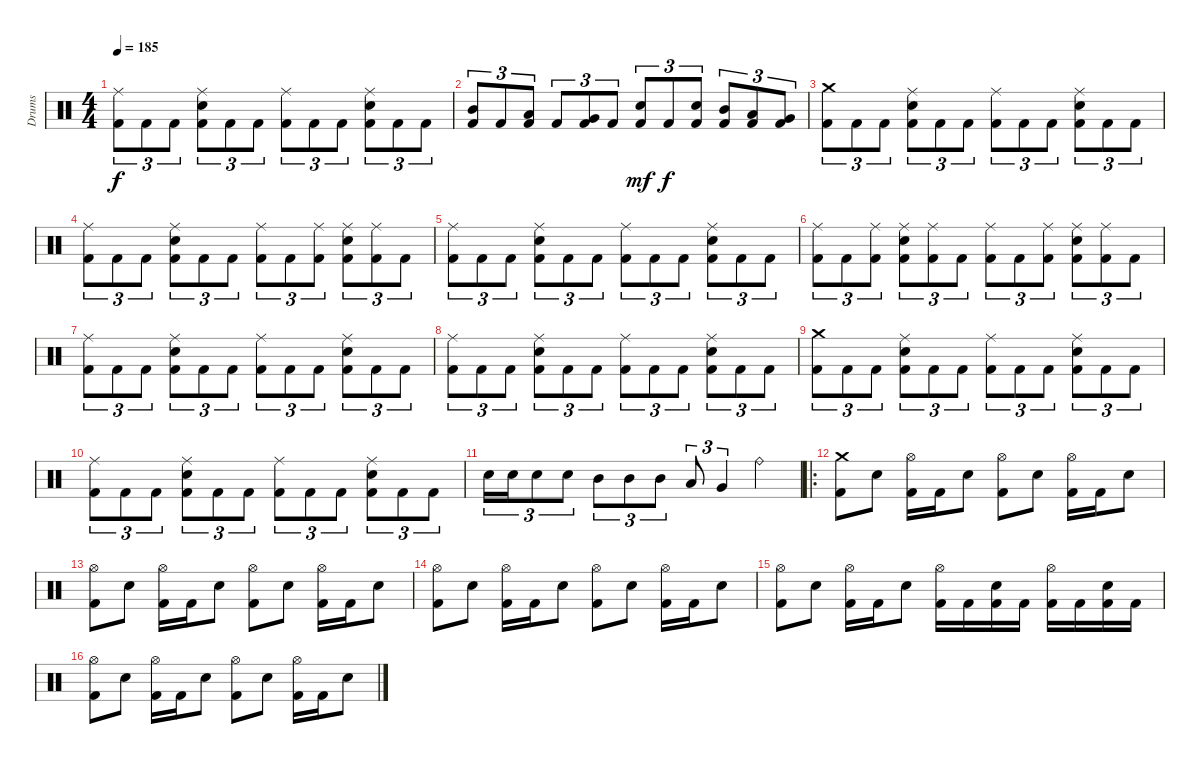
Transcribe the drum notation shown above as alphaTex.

\track ("Drums" "Drums") {instrument percussion}
\staff {score}
\articulation defaults
\ts (4 4)
\tempo 185
\clef neutral
\ks c
("Ride (middle)" "Kick (hit) 2").8{tu (3 2) dy f} "Kick (hit) 2".8{tu (3 2)} "Kick (hit) 2".8{tu (3 2)} ("Ride (middle)" "Electric Snare (hit)" "Kick (hit) 2").8{tu (3 2)} "Kick (hit) 2".8{tu (3 2)} "Kick (hit) 2".8{tu (3 2)} ("Ride (middle)" "Kick (hit) 2").8{tu (3 2)} "Kick (hit) 2".8{tu (3 2)} "Kick (hit) 2".8{tu (3 2)} ("Ride (middle)" "Electric Snare (hit)" "Kick (hit) 2").8{tu (3 2)} "Kick (hit) 2".8{tu (3 2)} "Kick (hit) 2".8{tu (3 2)} |
("Mid Tom (hit)" "Kick (hit) 2").8{tu (3 2)} "Kick (hit) 2".8{tu (3 2)} ("Low Tom (hit)" "Kick (hit) 2").8{tu (3 2)} "Kick (hit) 2".8{tu (3 2)} ("Very Low Tom (hit)" "Kick (hit) 2").8{tu (3 2)} "Kick (hit) 2".8{tu (3 2)} ("Electric Snare (hit)" "Kick (hit) 2").8{tu (3 2) dy mf} "Kick (hit) 2".8{tu (3 2) dy f} ("Electric Snare (hit)" "Kick (hit) 2").8{tu (3 2)} ("Mid Tom (hit)" "Kick (hit) 2").8{tu (3 2)} ("Low Tom (hit)" "Kick (hit) 2").8{tu (3 2)} ("Very Low Tom (hit)" "Kick (hit) 2").8{tu (3 2)} |
("Crash medium (hit)" "Kick (hit) 2").8{tu (3 2)} "Kick (hit) 2".8{tu (3 2)} "Kick (hit) 2".8{tu (3 2)} ("Ride (middle)" "Electric Snare (hit)" "Kick (hit) 2").8{tu (3 2)} "Kick (hit) 2".8{tu (3 2)} "Kick (hit) 2".8{tu (3 2)} ("Ride (middle)" "Kick (hit) 2").8{tu (3 2)} "Kick (hit) 2".8{tu (3 2)} "Kick (hit) 2".8{tu (3 2)} ("Ride (middle)" "Electric Snare (hit)" "Kick (hit) 2").8{tu (3 2)} "Kick (hit) 2".8{tu (3 2)} "Kick (hit) 2".8{tu (3 2)} |
("Ride (middle)" "Kick (hit) 2").8{tu (3 2)} "Kick (hit) 2".8{tu (3 2)} "Kick (hit) 2".8{tu (3 2)} ("Ride (middle)" "Electric Snare (hit)" "Kick (hit) 2").8{tu (3 2)} "Kick (hit) 2".8{tu (3 2)} "Kick (hit) 2".8{tu (3 2)} ("Ride (middle)" "Kick (hit) 2").8{tu (3 2)} "Kick (hit) 2".8{tu (3 2)} ("Ride (middle)" "Kick (hit) 2").8{tu (3 2)} ("Ride (middle)" "Electric Snare (hit)" "Kick (hit) 2").8{tu (3 2)} ("Ride (middle)" "Kick (hit) 2").8{tu (3 2)} "Kick (hit) 2".8{tu (3 2)} |
("Ride (middle)" "Kick (hit) 2").8{tu (3 2)} "Kick (hit) 2".8{tu (3 2)} "Kick (hit) 2".8{tu (3 2)} ("Ride (middle)" "Electric Snare (hit)" "Kick (hit) 2").8{tu (3 2)} "Kick (hit) 2".8{tu (3 2)} "Kick (hit) 2".8{tu (3 2)} ("Ride (middle)" "Kick (hit) 2").8{tu (3 2)} "Kick (hit) 2".8{tu (3 2)} "Kick (hit) 2".8{tu (3 2)} ("Ride (middle)" "Electric Snare (hit)" "Kick (hit) 2").8{tu (3 2)} "Kick (hit) 2".8{tu (3 2)} "Kick (hit) 2".8{tu (3 2)} |
("Ride (middle)" "Kick (hit) 2").8{tu (3 2)} "Kick (hit) 2".8{tu (3 2)} ("Ride (middle)" "Kick (hit) 2").8{tu (3 2)} ("Ride (middle)" "Electric Snare (hit)" "Kick (hit) 2").8{tu (3 2)} ("Ride (middle)" "Kick (hit) 2").8{tu (3 2)} "Kick (hit) 2".8{tu (3 2)} ("Ride (middle)" "Kick (hit) 2").8{tu (3 2)} "Kick (hit) 2".8{tu (3 2)} ("Ride (middle)" "Kick (hit) 2").8{tu (3 2)} ("Ride (middle)" "Electric Snare (hit)" "Kick (hit) 2").8{tu (3 2)} ("Ride (middle)" "Kick (hit) 2").8{tu (3 2)} "Kick (hit) 2".8{tu (3 2)} |
("Ride (middle)" "Kick (hit) 2").8{tu (3 2)} "Kick (hit) 2".8{tu (3 2)} "Kick (hit) 2".8{tu (3 2)} ("Ride (middle)" "Electric Snare (hit)" "Kick (hit) 2").8{tu (3 2)} "Kick (hit) 2".8{tu (3 2)} "Kick (hit) 2".8{tu (3 2)} ("Ride (middle)" "Kick (hit) 2").8{tu (3 2)} "Kick (hit) 2".8{tu (3 2)} "Kick (hit) 2".8{tu (3 2)} ("Ride (middle)" "Electric Snare (hit)" "Kick (hit) 2").8{tu (3 2)} "Kick (hit) 2".8{tu (3 2)} "Kick (hit) 2".8{tu (3 2)} |
("Ride (middle)" "Kick (hit) 2").8{tu (3 2)} "Kick (hit) 2".8{tu (3 2)} "Kick (hit) 2".8{tu (3 2)} ("Ride (middle)" "Electric Snare (hit)" "Kick (hit) 2").8{tu (3 2)} "Kick (hit) 2".8{tu (3 2)} "Kick (hit) 2".8{tu (3 2)} ("Ride (middle)" "Kick (hit) 2").8{tu (3 2)} "Kick (hit) 2".8{tu (3 2)} "Kick (hit) 2".8{tu (3 2)} ("Ride (middle)" "Electric Snare (hit)" "Kick (hit) 2").8{tu (3 2)} "Kick (hit) 2".8{tu (3 2)} "Kick (hit) 2".8{tu (3 2)} |
("Crash medium (hit)" "Kick (hit) 2").8{tu (3 2)} "Kick (hit) 2".8{tu (3 2)} "Kick (hit) 2".8{tu (3 2)} ("Ride (middle)" "Electric Snare (hit)" "Kick (hit) 2").8{tu (3 2)} "Kick (hit) 2".8{tu (3 2)} "Kick (hit) 2".8{tu (3 2)} ("Ride (middle)" "Kick (hit) 2").8{tu (3 2)} "Kick (hit) 2".8{tu (3 2)} "Kick (hit) 2".8{tu (3 2)} ("Ride (middle)" "Electric Snare (hit)" "Kick (hit) 2").8{tu (3 2)} "Kick (hit) 2".8{tu (3 2)} "Kick (hit) 2".8{tu (3 2)} |
("Ride (middle)" "Kick (hit) 2").8{tu (3 2)} "Kick (hit) 2".8{tu (3 2)} "Kick (hit) 2".8{tu (3 2)} ("Ride (middle)" "Electric Snare (hit)" "Kick (hit) 2").8{tu (3 2)} "Kick (hit) 2".8{tu (3 2)} "Kick (hit) 2".8{tu (3 2)} ("Ride (middle)" "Kick (hit) 2").8{tu (3 2)} "Kick (hit) 2".8{tu (3 2)} "Kick (hit) 2".8{tu (3 2)} ("Ride (middle)" "Electric Snare (hit)" "Kick (hit) 2").8{tu (3 2)} "Kick (hit) 2".8{tu (3 2)} "Kick (hit) 2".8{tu (3 2)} |
"Electric Snare (hit)".16{tu (3 2)} "Electric Snare (hit)".16{tu (3 2)} "Electric Snare (hit)".8{tu (3 2)} "Electric Snare (hit)".8{tu (3 2)} "Mid Tom (hit)".8{tu (3 2)} "Mid Tom (hit)".8{tu (3 2)} "Mid Tom (hit)".8{tu (3 2)} "Low Tom (hit)".8{tu (3 2)} "Very Low Tom (hit)".4{tu (3 2)} "Ride (bell)".4 |
\ro
("Crash medium (hit)" "Kick (hit) 2").8 "Electric Snare (hit)".8 ("Hi-Hat (open)" "Kick (hit) 2").16 "Kick (hit) 2".16 "Electric Snare (hit)".8 ("Hi-Hat (open)" "Kick (hit) 2").8 "Electric Snare (hit)".8 ("Hi-Hat (open)" "Kick (hit) 2").16 "Kick (hit) 2".16 "Electric Snare (hit)".8 |
("Hi-Hat (open)" "Kick (hit) 2").8 "Electric Snare (hit)".8 ("Hi-Hat (open)" "Kick (hit) 2").16 "Kick (hit) 2".16 "Electric Snare (hit)".8 ("Hi-Hat (open)" "Kick (hit) 2").8 "Electric Snare (hit)".8 ("Hi-Hat (open)" "Kick (hit) 2").16 "Kick (hit) 2".16 "Electric Snare (hit)".8 |
("Hi-Hat (open)" "Kick (hit) 2").8 "Electric Snare (hit)".8 ("Hi-Hat (open)" "Kick (hit) 2").16 "Kick (hit) 2".16 "Electric Snare (hit)".8 ("Hi-Hat (open)" "Kick (hit) 2").8 "Electric Snare (hit)".8 ("Hi-Hat (open)" "Kick (hit) 2").16 "Kick (hit) 2".16 "Electric Snare (hit)".8 |
("Hi-Hat (open)" "Kick (hit) 2").8 "Electric Snare (hit)".8 ("Hi-Hat (open)" "Kick (hit) 2").16 "Kick (hit) 2".16 "Electric Snare (hit)".8 ("Hi-Hat (open)" "Kick (hit) 2").16 "Kick (hit) 2".16 ("Electric Snare (hit)" "Kick (hit) 2").16 "Kick (hit) 2".16 ("Hi-Hat (open)" "Kick (hit) 2").16 "Kick (hit) 2".16 ("Electric Snare (hit)" "Kick (hit) 2").16 "Kick (hit) 2".16 |
("Hi-Hat (open)" "Kick (hit) 2").8 "Electric Snare (hit)".8 ("Hi-Hat (open)" "Kick (hit) 2").16 "Kick (hit) 2".16 "Electric Snare (hit)".8 ("Hi-Hat (open)" "Kick (hit) 2").8 "Electric Snare (hit)".8 ("Hi-Hat (open)" "Kick (hit) 2").16 "Kick (hit) 2".16 "Electric Snare (hit)".8
